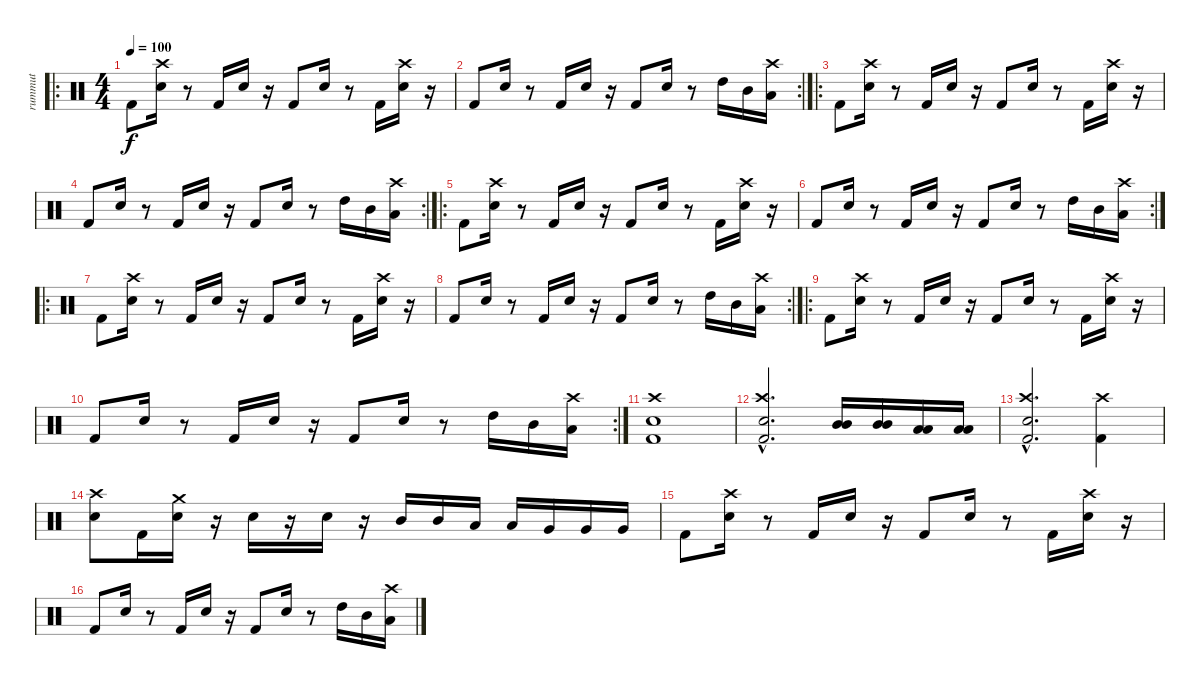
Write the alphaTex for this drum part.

\track ("rummut" "rummut") {instrument percussion}
\staff {score}
\articulation defaults
\ro
\ts (4 4)
\tempo 100
\clef neutral
\ks c "Kick (hit) 2".8{dy f}
("Crash high (hit)" "Snare (hit) 2").16 r.8 "Kick (hit) 2".16 "Snare (hit) 2".16 r.16 "Kick (hit) 2".8 "Snare (hit) 2".16 r.8 "Kick (hit) 2".16 ("Crash high (hit)" "Snare (hit) 2").16 r.16 |
\rc 2 "Kick (hit) 2".8 "Snare (hit) 2".16
r.8 "Kick (hit) 2".16 "Snare (hit) 2".16 r.16 "Kick (hit) 2".8 "Snare (hit) 2".16 r.8 "High Tom (hit)".16 "Mid Tom (hit)".16 ("Crash high (hit)" "Low Tom (hit)").16 |
\ro "Kick (hit) 2".8
("Crash high (hit)" "Snare (hit) 2").16 r.8 "Kick (hit) 2".16 "Snare (hit) 2".16 r.16 "Kick (hit) 2".8 "Snare (hit) 2".16 r.8 "Kick (hit) 2".16 ("Crash high (hit)" "Snare (hit) 2").16 r.16 |
\rc 2 "Kick (hit) 2".8 "Snare (hit) 2".16
r.8 "Kick (hit) 2".16 "Snare (hit) 2".16 r.16 "Kick (hit) 2".8 "Snare (hit) 2".16 r.8 "High Tom (hit)".16 "Mid Tom (hit)".16 ("Crash high (hit)" "Low Tom (hit)").16 |
\ro "Kick (hit) 2".8
("Crash high (hit)" "Snare (hit) 2").16 r.8 "Kick (hit) 2".16 "Snare (hit) 2".16 r.16 "Kick (hit) 2".8 "Snare (hit) 2".16 r.8 "Kick (hit) 2".16 ("Crash high (hit)" "Snare (hit) 2").16 r.16 |
\rc 2 "Kick (hit) 2".8 "Snare (hit) 2".16
r.8 "Kick (hit) 2".16 "Snare (hit) 2".16 r.16 "Kick (hit) 2".8 "Snare (hit) 2".16 r.8 "High Tom (hit)".16 "Mid Tom (hit)".16 ("Crash high (hit)" "Low Tom (hit)").16 |
\ro "Kick (hit) 2".8
("Crash high (hit)" "Snare (hit) 2").16 r.8 "Kick (hit) 2".16 "Snare (hit) 2".16 r.16 "Kick (hit) 2".8 "Snare (hit) 2".16 r.8 "Kick (hit) 2".16 ("Crash high (hit)" "Snare (hit) 2").16 r.16 |
\rc 2 "Kick (hit) 2".8 "Snare (hit) 2".16
r.8 "Kick (hit) 2".16 "Snare (hit) 2".16 r.16 "Kick (hit) 2".8 "Snare (hit) 2".16 r.8 "High Tom (hit)".16 "Mid Tom (hit)".16 ("Crash high (hit)" "Low Tom (hit)").16 |
\ro "Kick (hit) 2".8
("Crash high (hit)" "Snare (hit) 2").16 r.8 "Kick (hit) 2".16 "Snare (hit) 2".16 r.16 "Kick (hit) 2".8 "Snare (hit) 2".16 r.8 "Kick (hit) 2".16 ("Crash high (hit)" "Snare (hit) 2").16 r.16 |
\rc 2 "Kick (hit) 2".8 "Snare (hit) 2".16
r.8 "Kick (hit) 2".16 "Snare (hit) 2".16 r.16 "Kick (hit) 2".8 "Snare (hit) 2".16 r.8 "High Tom (hit)".16 "Mid Tom (hit)".16 ("Crash high (hit)" "Low Tom (hit)").16 |
("Crash high (hit)" "Snare (hit) 2" "Kick (hit) 2").1 |
("Crash high (hit)"{hac} "Snare (hit) 2"{hac} "Kick (hit) 2"{hac}).2{d} ("Mid Tom (hit)" "Mid Tom (hit)").16 ("Mid Tom (hit)" "Mid Tom (hit)").16 ("Low Tom (hit)" "Low Tom (hit)").16 ("Low Tom (hit)" "Low Tom (hit)").16 |
("Crash high (hit)"{hac} "Snare (hit) 2"{hac} "Kick (hit) 2"{hac}).2{d} ("Crash high (hit)" "Kick (hit) 2").4 |
("Crash high (hit)" "Snare (hit) 2").8 "Kick (hit) 2".16 ("Electric Snare (hit)" "Crash medium (hit)").16 r.16 "Electric Snare (hit)".16 r.16 "Electric Snare (hit)".16 r.16 "Mid Tom (hit)".16 "Mid Tom (hit)".16 "Low Tom (hit)".16 "Low Tom (hit)".16 "Very Low Tom (hit)".16 "Very Low Tom (hit)".16 "Very Low Tom (hit)".16 |
"Kick (hit) 2".8 ("Crash high (hit)" "Snare (hit) 2").16 r.8 "Kick (hit) 2".16 "Snare (hit) 2".16 r.16 "Kick (hit) 2".8 "Snare (hit) 2".16 r.8 "Kick (hit) 2".16 ("Crash high (hit)" "Snare (hit) 2").16 r.16 |
"Kick (hit) 2".8 "Snare (hit) 2".16 r.8 "Kick (hit) 2".16 "Snare (hit) 2".16 r.16 "Kick (hit) 2".8 "Snare (hit) 2".16 r.8 "High Tom (hit)".16 "Mid Tom (hit)".16 ("Crash high (hit)" "Low Tom (hit)").16
